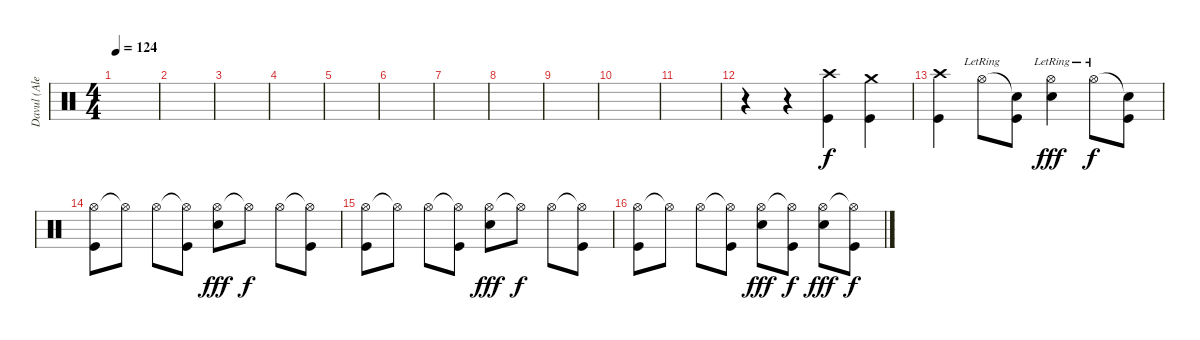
\track ("Davul (Alen)" "Davul (Ale") {instrument percussion}
\staff {score}
\articulation defaults
\ts (4 4)
\tempo 124
\clef neutral
\ks c
|
|
|
|
|
|
|
|
|
|
|
r.4 r.4 ("Crash high (hit)" "Kick (hit)").4{dy f} ("Crash medium (hit)" "Kick (hit)").4 |
("Crash high (hit)" "Kick (hit)").4 "Hi-Hat (open)"{lr}.8 ("Snare (hit)"{t} "Kick (hit)").8 ("Hi-Hat (open)"{lr} "Electric Snare (hit)").4{dy fff} "Hi-Hat (open)"{lr}.8{dy f} ("Snare (hit)"{t} "Kick (hit)").8 |
("Hi-Hat (open)" "Kick (hit)").8 "Hi-Hat (open)"{t}.8 "Hi-Hat (open)".8 ("Hi-Hat (open)"{t} "Kick (hit)").8 ("Hi-Hat (open)" "Electric Snare (hit)").8{dy fff} "Hi-Hat (open)"{t}.8{dy f} "Hi-Hat (open)".8 ("Hi-Hat (open)"{t} "Kick (hit)").8 |
("Hi-Hat (open)" "Kick (hit)").8 "Hi-Hat (open)"{t}.8 "Hi-Hat (open)".8 ("Hi-Hat (open)"{t} "Kick (hit)").8 ("Hi-Hat (open)" "Electric Snare (hit)").8{dy fff} "Hi-Hat (open)"{t}.8{dy f} "Hi-Hat (open)".8 ("Hi-Hat (open)"{t} "Kick (hit)").8 |
("Hi-Hat (open)" "Kick (hit)").8 "Hi-Hat (open)"{t}.8 "Hi-Hat (open)".8 ("Hi-Hat (open)"{t} "Kick (hit)").8 ("Hi-Hat (open)" "Electric Snare (hit)").8{dy fff} ("Hi-Hat (open)"{t} "Kick (hit)").8{dy f} ("Hi-Hat (open)" "Electric Snare (hit)").8{dy fff} ("Hi-Hat (open)"{t} "Kick (hit)").8{dy f}
